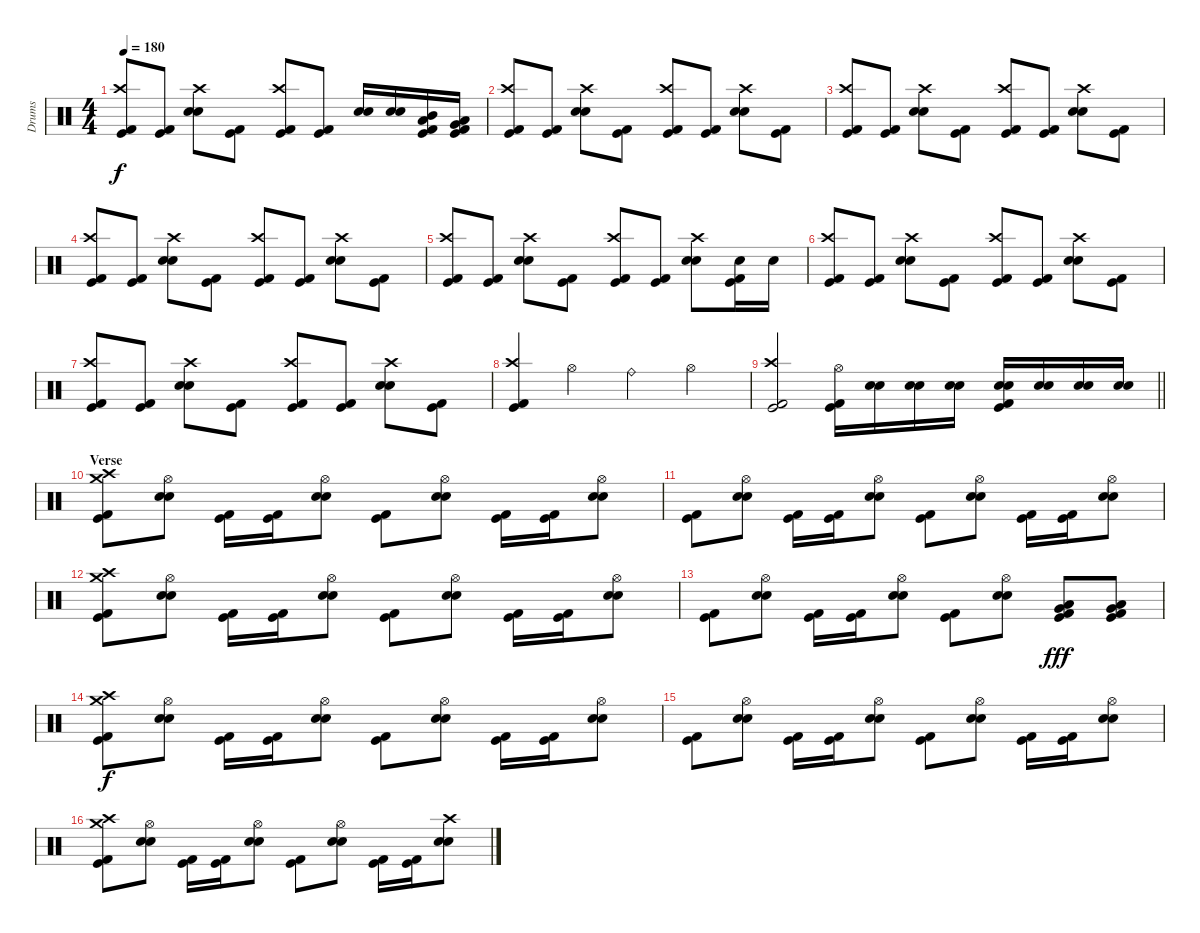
\track ("Drums" "Drums") {instrument percussion}
\staff {score}
\articulation defaults
\ts (4 4)
\tempo 180
\clef neutral
\ks c
("Kick (hit)" "Crash high (hit)" "Kick (hit) 2").8{dy f} ("Kick (hit)" "Kick (hit) 2").8 ("Electric Snare (hit)" "Snare (hit) 2" "Crash high (hit)").8 ("Kick (hit)" "Kick (hit) 2").8 ("Kick (hit)" "Crash high (hit)" "Kick (hit) 2").8 ("Kick (hit)" "Kick (hit) 2").8 ("Snare (hit) 2" "Electric Snare (hit)").16 ("Snare (hit) 2" "Electric Snare (hit)").16 ("Low Tom (hit)" "Mid Tom (hit)" "Kick (hit) 2" "Kick (hit)").16 ("Very Low Tom (hit)" "Low Tom (hit)" "Kick (hit) 2" "Kick (hit)").16 |
("Kick (hit)" "Crash high (hit)" "Kick (hit) 2").8 ("Kick (hit)" "Kick (hit) 2").8 ("Electric Snare (hit)" "Snare (hit) 2" "Crash high (hit)").8 ("Kick (hit)" "Kick (hit) 2").8 ("Kick (hit)" "Crash high (hit)" "Kick (hit) 2").8 ("Kick (hit)" "Kick (hit) 2").8 ("Electric Snare (hit)" "Snare (hit) 2" "Crash high (hit)").8 ("Kick (hit)" "Kick (hit) 2").8 |
("Kick (hit)" "Crash high (hit)" "Kick (hit) 2").8 ("Kick (hit)" "Kick (hit) 2").8 ("Electric Snare (hit)" "Snare (hit) 2" "Crash high (hit)").8 ("Kick (hit)" "Kick (hit) 2").8 ("Kick (hit)" "Crash high (hit)" "Kick (hit) 2").8 ("Kick (hit)" "Kick (hit) 2").8 ("Electric Snare (hit)" "Snare (hit) 2" "Crash high (hit)").8 ("Kick (hit)" "Kick (hit) 2").8 |
("Kick (hit)" "Crash high (hit)" "Kick (hit) 2").8 ("Kick (hit)" "Kick (hit) 2").8 ("Electric Snare (hit)" "Snare (hit) 2" "Crash high (hit)").8 ("Kick (hit)" "Kick (hit) 2").8 ("Kick (hit)" "Crash high (hit)" "Kick (hit) 2").8 ("Kick (hit)" "Kick (hit) 2").8 ("Electric Snare (hit)" "Snare (hit) 2" "Crash high (hit)").8 ("Kick (hit)" "Kick (hit) 2").8 |
("Kick (hit)" "Crash high (hit)" "Kick (hit) 2").8 ("Kick (hit)" "Kick (hit) 2").8 ("Electric Snare (hit)" "Snare (hit) 2" "Crash high (hit)").8 ("Kick (hit)" "Kick (hit) 2").8 ("Kick (hit)" "Crash high (hit)" "Kick (hit) 2").8 ("Kick (hit)" "Kick (hit) 2").8 ("Electric Snare (hit)" "Snare (hit) 2" "Crash high (hit)").8 ("Electric Snare (hit)" "Kick (hit)" "Kick (hit) 2").16 "Electric Snare (hit)".16 |
("Kick (hit)" "Crash high (hit)" "Kick (hit) 2").8 ("Kick (hit)" "Kick (hit) 2").8 ("Electric Snare (hit)" "Snare (hit) 2" "Crash high (hit)").8 ("Kick (hit)" "Kick (hit) 2").8 ("Kick (hit)" "Crash high (hit)" "Kick (hit) 2").8 ("Kick (hit)" "Kick (hit) 2").8 ("Electric Snare (hit)" "Snare (hit) 2" "Crash high (hit)").8 ("Kick (hit)" "Kick (hit) 2").8 |
("Kick (hit)" "Crash high (hit)" "Kick (hit) 2").8 ("Kick (hit)" "Kick (hit) 2").8 ("Electric Snare (hit)" "Snare (hit) 2" "Crash high (hit)").8 ("Kick (hit)" "Kick (hit) 2").8 ("Kick (hit)" "Crash high (hit)" "Kick (hit) 2").8 ("Kick (hit)" "Kick (hit) 2").8 ("Electric Snare (hit)" "Snare (hit) 2" "Crash high (hit)").8 ("Kick (hit)" "Kick (hit) 2").8 |
("Kick (hit)" "Crash high (hit)" "Kick (hit) 2").4 "Hi-Hat (open)".4 "Ride (bell)".4 "Hi-Hat (open)".4 |
\barLineRight lightlight
("Crash high (hit)" "Kick (hit)" "Kick (hit) 2").2 ("Kick (hit)" "Hi-Hat (open)" "Kick (hit) 2").16 ("Electric Snare (hit)" "Snare (hit) 2").16 ("Electric Snare (hit)" "Snare (hit) 2").16 ("Electric Snare (hit)" "Snare (hit) 2").16 ("Electric Snare (hit)" "Kick (hit)" "Snare (hit) 2" "Kick (hit) 2").16 ("Electric Snare (hit)" "Snare (hit) 2").16 ("Electric Snare (hit)" "Snare (hit) 2").16 ("Electric Snare (hit)" "Snare (hit) 2").16 |
\section ("" "Verse")
("Crash medium (hit)" "Kick (hit)" "Crash high (hit)" "Kick (hit) 2").8 ("Electric Snare (hit)" "Snare (hit) 2" "Hi-Hat (open)").8 ("Kick (hit)" "Kick (hit) 2").16 ("Kick (hit)" "Kick (hit) 2").16 ("Electric Snare (hit)" "Snare (hit) 2" "Hi-Hat (open)").8 ("Kick (hit)" "Kick (hit) 2").8 ("Electric Snare (hit)" "Snare (hit) 2" "Hi-Hat (open)").8 ("Kick (hit)" "Kick (hit) 2").16 ("Kick (hit)" "Kick (hit) 2").16 ("Electric Snare (hit)" "Snare (hit) 2" "Hi-Hat (open)").8 |
("Kick (hit)" "Kick (hit) 2").8 ("Electric Snare (hit)" "Snare (hit) 2" "Hi-Hat (open)").8 ("Kick (hit)" "Kick (hit) 2").16 ("Kick (hit)" "Kick (hit) 2").16 ("Electric Snare (hit)" "Snare (hit) 2" "Hi-Hat (open)").8 ("Kick (hit)" "Kick (hit) 2").8 ("Electric Snare (hit)" "Snare (hit) 2" "Hi-Hat (open)").8 ("Kick (hit)" "Kick (hit) 2").16 ("Kick (hit)" "Kick (hit) 2").16 ("Electric Snare (hit)" "Snare (hit) 2" "Hi-Hat (open)").8 |
("Crash medium (hit)" "Kick (hit)" "Crash high (hit)" "Kick (hit) 2").8 ("Electric Snare (hit)" "Snare (hit) 2" "Hi-Hat (open)").8 ("Kick (hit)" "Kick (hit) 2").16 ("Kick (hit)" "Kick (hit) 2").16 ("Electric Snare (hit)" "Snare (hit) 2" "Hi-Hat (open)").8 ("Kick (hit)" "Kick (hit) 2").8 ("Electric Snare (hit)" "Snare (hit) 2" "Hi-Hat (open)").8 ("Kick (hit)" "Kick (hit) 2").16 ("Kick (hit)" "Kick (hit) 2").16 ("Electric Snare (hit)" "Snare (hit) 2" "Hi-Hat (open)").8 |
("Kick (hit)" "Kick (hit) 2").8 ("Electric Snare (hit)" "Snare (hit) 2" "Hi-Hat (open)").8 ("Kick (hit)" "Kick (hit) 2").16 ("Kick (hit)" "Kick (hit) 2").16 ("Electric Snare (hit)" "Snare (hit) 2" "Hi-Hat (open)").8 ("Kick (hit)" "Kick (hit) 2").8 ("Electric Snare (hit)" "Snare (hit) 2" "Hi-Hat (open)").8 ("Very Low Tom (hit)" "Low Floor Tom (hit)" "Kick (hit)" "Kick (hit) 2").8{dy fff} ("Very Low Tom (hit)" "Low Floor Tom (hit)" "Kick (hit)" "Kick (hit) 2").8 |
("Crash medium (hit)" "Kick (hit)" "Crash high (hit)" "Kick (hit) 2").8{dy f} ("Electric Snare (hit)" "Snare (hit) 2" "Hi-Hat (open)").8 ("Kick (hit)" "Kick (hit) 2").16 ("Kick (hit)" "Kick (hit) 2").16 ("Electric Snare (hit)" "Snare (hit) 2" "Hi-Hat (open)").8 ("Kick (hit)" "Kick (hit) 2").8 ("Electric Snare (hit)" "Snare (hit) 2" "Hi-Hat (open)").8 ("Kick (hit)" "Kick (hit) 2").16 ("Kick (hit)" "Kick (hit) 2").16 ("Electric Snare (hit)" "Snare (hit) 2" "Hi-Hat (open)").8 |
("Kick (hit)" "Kick (hit) 2").8 ("Electric Snare (hit)" "Snare (hit) 2" "Hi-Hat (open)").8 ("Kick (hit)" "Kick (hit) 2").16 ("Kick (hit)" "Kick (hit) 2").16 ("Electric Snare (hit)" "Snare (hit) 2" "Hi-Hat (open)").8 ("Kick (hit)" "Kick (hit) 2").8 ("Electric Snare (hit)" "Snare (hit) 2" "Hi-Hat (open)").8 ("Kick (hit)" "Kick (hit) 2").16 ("Kick (hit)" "Kick (hit) 2").16 ("Electric Snare (hit)" "Snare (hit) 2" "Hi-Hat (open)").8 |
("Crash medium (hit)" "Kick (hit)" "Crash high (hit)" "Kick (hit) 2").8 ("Electric Snare (hit)" "Snare (hit) 2" "Hi-Hat (open)").8 ("Kick (hit)" "Kick (hit) 2").16 ("Kick (hit)" "Kick (hit) 2").16 ("Electric Snare (hit)" "Snare (hit) 2" "Hi-Hat (open)").8 ("Kick (hit)" "Kick (hit) 2").8 ("Electric Snare (hit)" "Snare (hit) 2" "Hi-Hat (open)").8 ("Kick (hit)" "Kick (hit) 2").16 ("Kick (hit)" "Kick (hit) 2").16 ("Electric Snare (hit)" "Snare (hit) 2" "Crash high (hit)").8
